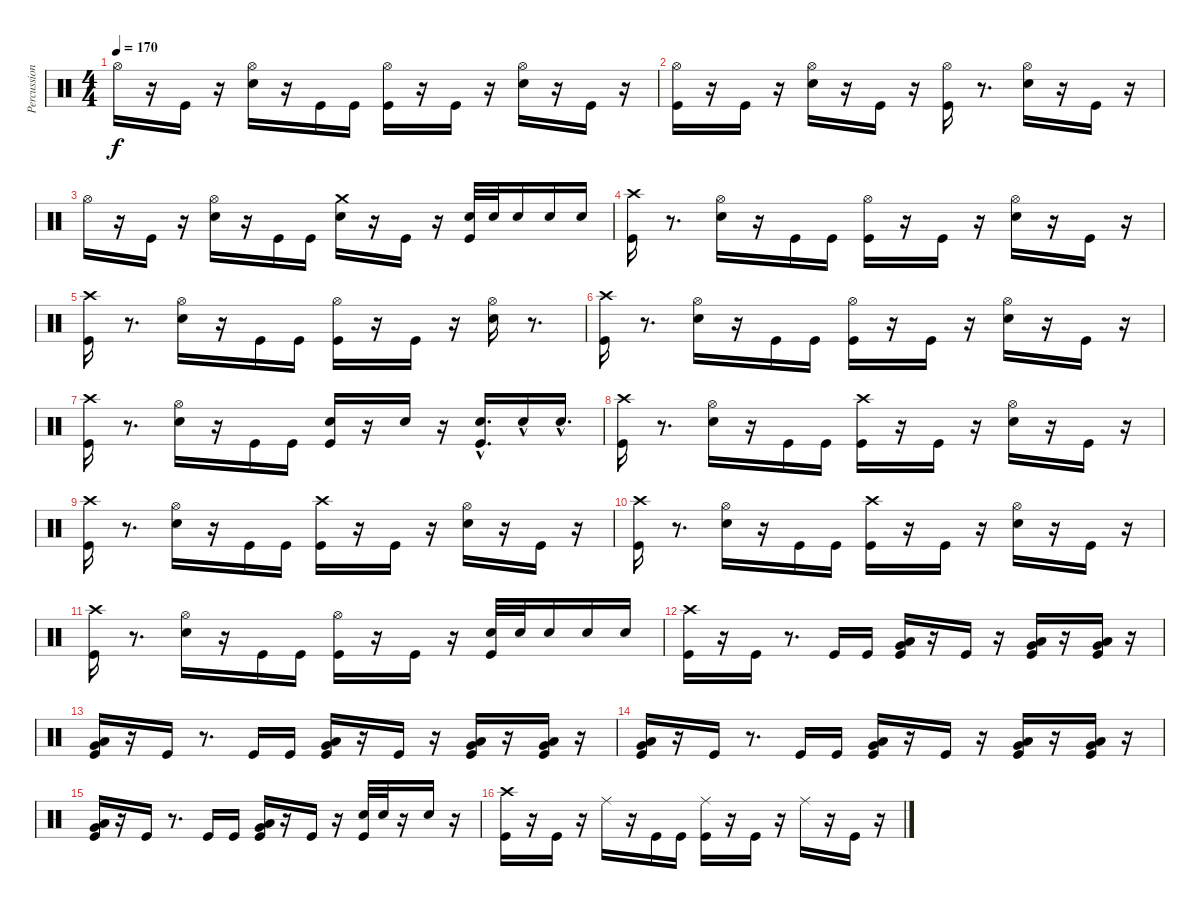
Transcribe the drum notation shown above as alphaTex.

\track ("Percussion" "Percussion") {instrument percussion}
\staff {score}
\articulation defaults
\ts (4 4)
\tempo 170
\clef neutral
\ks c "Hi-Hat (open)".16{dy f}
r.16 "Kick (hit)".16 r.16 ("Hi-Hat (open)" "Electric Snare (hit)").16 r.16 "Kick (hit)".16 "Kick (hit)".16 ("Hi-Hat (open)" "Kick (hit)").16 r.16 "Kick (hit)".16 r.16 ("Hi-Hat (open)" "Electric Snare (hit)").16 r.16 "Kick (hit)".16 r.16 |
("Hi-Hat (open)" "Kick (hit)").16 r.16 "Kick (hit)".16 r.16 ("Hi-Hat (open)" "Electric Snare (hit)").16 r.16 "Kick (hit)".16 r.16 ("Hi-Hat (open)" "Kick (hit)").16 r.8{d} ("Hi-Hat (open)" "Electric Snare (hit)").16 r.16 "Kick (hit)".16 r.16 |
"Hi-Hat (open)".16 r.16 "Kick (hit)".16 r.16 ("Hi-Hat (open)" "Electric Snare (hit)").16 r.16 "Kick (hit)".16 "Kick (hit)".16 ("Crash medium (hit)" "Electric Snare (hit)").16 r.16 "Kick (hit)".16 r.16 ("Kick (hit)" "Electric Snare (hit)").32 "Electric Snare (hit)".32 "Electric Snare (hit)".16 "Electric Snare (hit)".16 "Electric Snare (hit)".16 |
("Crash high (hit)" "Kick (hit)").16 r.8{d} ("Hi-Hat (open)" "Electric Snare (hit)").16 r.16 "Kick (hit)".16 "Kick (hit)".16 ("Hi-Hat (open)" "Kick (hit)").16 r.16 "Kick (hit)".16 r.16 ("Hi-Hat (open)" "Electric Snare (hit)").16 r.16 "Kick (hit)".16 r.16 |
("Crash high (hit)" "Kick (hit)").16 r.8{d} ("Hi-Hat (open)" "Electric Snare (hit)").16 r.16 "Kick (hit)".16 "Kick (hit)".16 ("Hi-Hat (open)" "Kick (hit)").16 r.16 "Kick (hit)".16 r.16 ("Hi-Hat (open)" "Electric Snare (hit)").16 r.8{d} |
("Crash high (hit)" "Kick (hit)").16 r.8{d} ("Hi-Hat (open)" "Electric Snare (hit)").16 r.16 "Kick (hit)".16 "Kick (hit)".16 ("Hi-Hat (open)" "Kick (hit)").16 r.16 "Kick (hit)".16 r.16 ("Hi-Hat (open)" "Electric Snare (hit)").16 r.16 "Kick (hit)".16 r.16 |
("Crash high (hit)" "Kick (hit)").16 r.8{d} ("Hi-Hat (open)" "Electric Snare (hit)").16 r.16 "Kick (hit)".16 "Kick (hit)".16 ("Kick (hit)" "Electric Snare (hit)").16 r.16 "Electric Snare (hit)".16 r.16 ("Kick (hit)" "Electric Snare (hit)"{hac}).16{d} "Electric Snare (hit)"{hac}.16 "Electric Snare (hit)"{hac}.16{d} |
("Crash high (hit)" "Kick (hit)").16 r.8{d} ("Hi-Hat (open)" "Electric Snare (hit)").16 r.16 "Kick (hit)".16 "Kick (hit)".16 ("Crash high (hit)" "Kick (hit)").16 r.16 "Kick (hit)".16 r.16 ("Hi-Hat (open)" "Electric Snare (hit)").16 r.16 "Kick (hit)".16 r.16 |
("Crash high (hit)" "Kick (hit)").16 r.8{d} ("Hi-Hat (open)" "Electric Snare (hit)").16 r.16 "Kick (hit)".16 "Kick (hit)".16 ("Crash high (hit)" "Kick (hit)").16 r.16 "Kick (hit)".16 r.16 ("Hi-Hat (open)" "Electric Snare (hit)").16 r.16 "Kick (hit)".16 r.16 |
("Crash high (hit)" "Kick (hit)").16 r.8{d} ("Hi-Hat (open)" "Electric Snare (hit)").16 r.16 "Kick (hit)".16 "Kick (hit)".16 ("Crash high (hit)" "Kick (hit)").16 r.16 "Kick (hit)".16 r.16 ("Hi-Hat (open)" "Electric Snare (hit)").16 r.16 "Kick (hit)".16 r.16 |
("Crash high (hit)" "Kick (hit)").16 r.8{d} ("Hi-Hat (open)" "Electric Snare (hit)").16 r.16 "Kick (hit)".16 "Kick (hit)".16 ("Hi-Hat (open)" "Kick (hit)").16 r.16 "Kick (hit)".16 r.16 ("Kick (hit)" "Electric Snare (hit)").32 "Electric Snare (hit)".32 "Electric Snare (hit)".16 "Electric Snare (hit)".16 "Electric Snare (hit)".16 |
("Crash high (hit)" "Kick (hit)").16 r.16 "Kick (hit)".16 r.8{d} "Kick (hit)".16 "Kick (hit)".16 ("Very Low Tom (hit)" "Low Floor Tom (hit)" "Kick (hit)").16 r.16 "Kick (hit)".16 r.16 ("Low Floor Tom (hit)" "Very Low Tom (hit)" "Kick (hit)").16 r.16 ("Very Low Tom (hit)" "Low Floor Tom (hit)" "Kick (hit)").16 r.16 |
("Low Floor Tom (hit)" "Very Low Tom (hit)" "Kick (hit)").16 r.16 "Kick (hit)".16 r.8{d} "Kick (hit)".16 "Kick (hit)".16 ("Low Floor Tom (hit)" "Very Low Tom (hit)" "Kick (hit)").16 r.16 "Kick (hit)".16 r.16 ("Low Floor Tom (hit)" "Very Low Tom (hit)" "Kick (hit)").16 r.16 ("Low Floor Tom (hit)" "Very Low Tom (hit)" "Kick (hit)").16 r.16 |
("Low Floor Tom (hit)" "Very Low Tom (hit)" "Kick (hit)").16 r.16 "Kick (hit)".16 r.8{d} "Kick (hit)".16 "Kick (hit)".16 ("Low Floor Tom (hit)" "Very Low Tom (hit)" "Kick (hit)").16 r.16 "Kick (hit)".16 r.16 ("Low Floor Tom (hit)" "Very Low Tom (hit)" "Kick (hit)").16 r.16 ("Low Floor Tom (hit)" "Very Low Tom (hit)" "Kick (hit)").16 r.16 |
("Low Floor Tom (hit)" "Very Low Tom (hit)" "Kick (hit)").16 r.16 "Kick (hit)".16 r.8{d} "Kick (hit)".16 "Kick (hit)".16 ("Low Floor Tom (hit)" "Very Low Tom (hit)" "Kick (hit)").16 r.16 "Kick (hit)".16 r.16 ("Kick (hit)" "Electric Snare (hit)").32 "Electric Snare (hit)".32 r.16 "Electric Snare (hit)".16 r.16 |
("Crash high (hit)" "Kick (hit)").16 r.16 "Kick (hit)".16 r.16 "Ride (middle)".16 r.16 "Kick (hit)".16 "Kick (hit)".16 ("Ride (middle)" "Kick (hit)").16 r.16 "Kick (hit)".16 r.16 "Ride (middle)".16 r.16 "Kick (hit)".16 r.16
